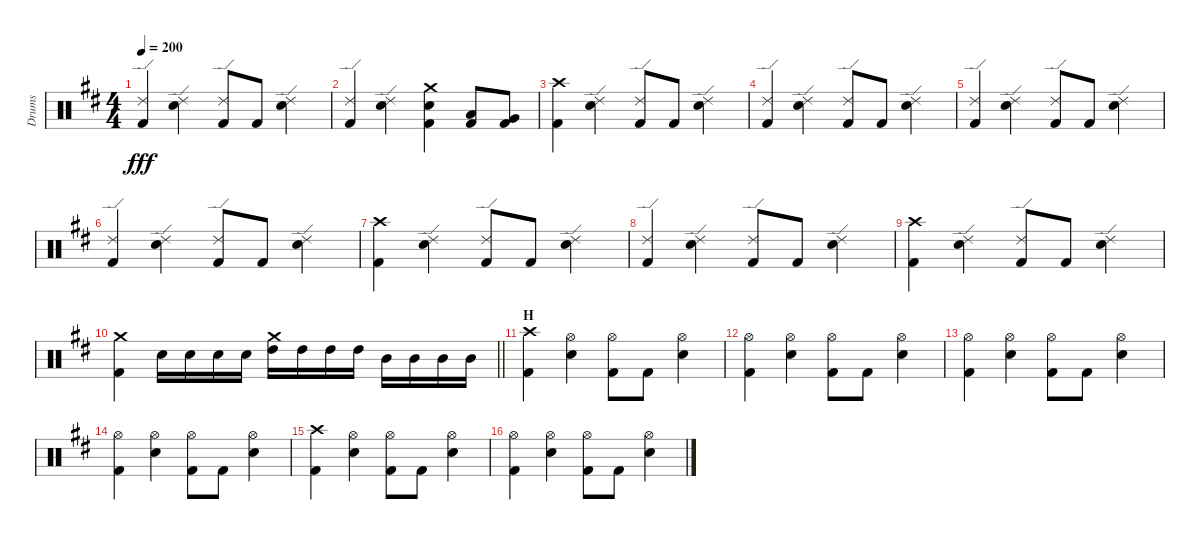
\track ("Drums" "Drums") {instrument percussion}
\staff {score}
\articulation defaults
\ts (4 4)
\tempo 200
\clef neutral
\ks d
("Ride (edge) 2" "Kick (hit) 2").4{dy fff} ("Ride (edge) 2" "Snare (hit) 2").4 ("Ride (edge) 2" "Kick (hit) 2").8 "Kick (hit) 2".8 ("Ride (edge) 2" "Snare (hit) 2").4 |
("Ride (edge) 2" "Kick (hit) 2").4 ("Ride (edge) 2" "Snare (hit) 2").4 ("Crash medium (hit)" "Snare (hit) 2" "Kick (hit) 2").4 ("Low Tom (hit)" "Kick (hit) 2").8 ("Very Low Tom (hit)" "Kick (hit) 2").8 |
("Crash high (hit)" "Kick (hit) 2").4 ("Ride (edge) 2" "Snare (hit) 2").4 ("Ride (edge) 2" "Kick (hit) 2").8 "Kick (hit) 2".8 ("Ride (edge) 2" "Snare (hit) 2").4 |
("Ride (edge) 2" "Kick (hit) 2").4 ("Ride (edge) 2" "Snare (hit) 2").4 ("Ride (edge) 2" "Kick (hit) 2").8 "Kick (hit) 2".8 ("Ride (edge) 2" "Snare (hit) 2").4 |
("Ride (edge) 2" "Kick (hit) 2").4 ("Ride (edge) 2" "Snare (hit) 2").4 ("Ride (edge) 2" "Kick (hit) 2").8 "Kick (hit) 2".8 ("Ride (edge) 2" "Snare (hit) 2").4 |
("Ride (edge) 2" "Kick (hit) 2").4 ("Ride (edge) 2" "Snare (hit) 2").4 ("Ride (edge) 2" "Kick (hit) 2").8 "Kick (hit) 2".8 ("Ride (edge) 2" "Snare (hit) 2").4 |
("Crash high (hit)" "Kick (hit) 2").4 ("Ride (edge) 2" "Snare (hit) 2").4 ("Ride (edge) 2" "Kick (hit) 2").8 "Kick (hit) 2".8 ("Ride (edge) 2" "Snare (hit) 2").4 |
("Ride (edge) 2" "Kick (hit) 2").4 ("Ride (edge) 2" "Snare (hit) 2").4 ("Ride (edge) 2" "Kick (hit) 2").8 "Kick (hit) 2".8 ("Ride (edge) 2" "Snare (hit) 2").4 |
("Crash high (hit)" "Kick (hit) 2").4 ("Ride (edge) 2" "Snare (hit) 2").4 ("Ride (edge) 2" "Kick (hit) 2").8 "Kick (hit) 2".8 ("Ride (edge) 2" "Snare (hit) 2").4 |
\barLineRight lightlight
("Crash medium (hit)" "Kick (hit) 2").4 "Snare (hit) 2".16 "Snare (hit) 2".16 "Snare (hit) 2".16 "Snare (hit) 2".16 ("Crash medium (hit)" "High Tom (hit)").16 "High Tom (hit)".16 "High Tom (hit)".16 "High Tom (hit)".16 "Mid Tom (hit)".16 "Mid Tom (hit)".16 "Mid Tom (hit)".16 "Mid Tom (hit)".16 |
\section ("" "H")
("Crash high (hit)" "Kick (hit) 2").4 ("Hi-Hat (open)" "Snare (hit) 2").4 ("Hi-Hat (open)" "Kick (hit) 2").8 "Kick (hit) 2".8 ("Hi-Hat (open)" "Snare (hit) 2").4 |
("Hi-Hat (open)" "Kick (hit) 2").4 ("Hi-Hat (open)" "Snare (hit) 2").4 ("Hi-Hat (open)" "Kick (hit) 2").8 "Kick (hit) 2".8 ("Hi-Hat (open)" "Snare (hit) 2").4 |
("Hi-Hat (open)" "Kick (hit) 2").4 ("Hi-Hat (open)" "Snare (hit) 2").4 ("Hi-Hat (open)" "Kick (hit) 2").8 "Kick (hit) 2".8 ("Hi-Hat (open)" "Snare (hit) 2").4 |
("Hi-Hat (open)" "Kick (hit) 2").4 ("Hi-Hat (open)" "Snare (hit) 2").4 ("Hi-Hat (open)" "Kick (hit) 2").8 "Kick (hit) 2".8 ("Hi-Hat (open)" "Snare (hit) 2").4 |
("Crash high (hit)" "Kick (hit) 2").4 ("Hi-Hat (open)" "Snare (hit) 2").4 ("Hi-Hat (open)" "Kick (hit) 2").8 "Kick (hit) 2".8 ("Hi-Hat (open)" "Snare (hit) 2").4 |
("Hi-Hat (open)" "Kick (hit) 2").4 ("Hi-Hat (open)" "Snare (hit) 2").4 ("Hi-Hat (open)" "Kick (hit) 2").8 "Kick (hit) 2".8 ("Hi-Hat (open)" "Snare (hit) 2").4
